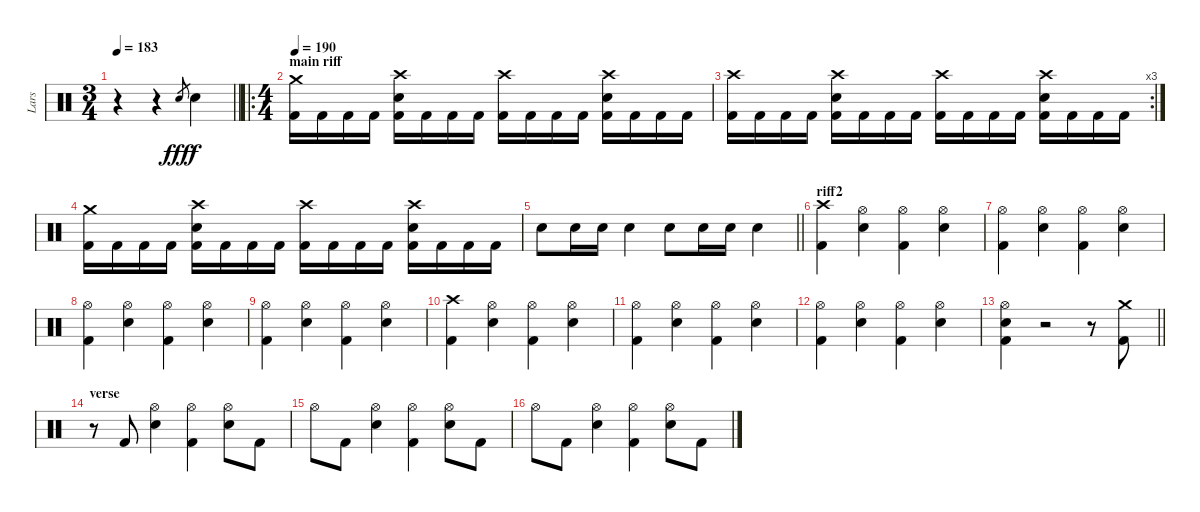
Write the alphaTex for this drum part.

\track ("Lars" "Lars") {instrument percussion}
\staff {score}
\articulation defaults
\ts (3 4)
\tempo 183
\clef neutral
\barLineRight lightlight
\ks c
r.4{dy f} r.4 "Snare (hit) 2".8{gr dy fff} "Snare (hit) 2".4{dy f} |
\ro
\ts (4 4)
\section ("" "main riff")
\tempo 190
("Crash medium (hit)" "Kick (hit) 2").16 "Kick (hit) 2".16 "Kick (hit) 2".16 "Kick (hit) 2".16 ("Crash high (hit)" "Snare (hit) 2" "Kick (hit) 2").16 "Kick (hit) 2".16 "Kick (hit) 2".16 "Kick (hit) 2".16 ("Crash high (hit)" "Kick (hit) 2").16 "Kick (hit) 2".16 "Kick (hit) 2".16 "Kick (hit) 2".16 ("Crash high (hit)" "Snare (hit) 2" "Kick (hit) 2").16 "Kick (hit) 2".16 "Kick (hit) 2".16 "Kick (hit) 2".16 |
\rc 3
("Crash high (hit)" "Kick (hit) 2").16 "Kick (hit) 2".16 "Kick (hit) 2".16 "Kick (hit) 2".16 ("Crash high (hit)" "Snare (hit) 2" "Kick (hit) 2").16 "Kick (hit) 2".16 "Kick (hit) 2".16 "Kick (hit) 2".16 ("Crash high (hit)" "Kick (hit) 2").16 "Kick (hit) 2".16 "Kick (hit) 2".16 "Kick (hit) 2".16 ("Crash high (hit)" "Snare (hit) 2" "Kick (hit) 2").16 "Kick (hit) 2".16 "Kick (hit) 2".16 "Kick (hit) 2".16 |
("Crash medium (hit)" "Kick (hit) 2").16 "Kick (hit) 2".16 "Kick (hit) 2".16 "Kick (hit) 2".16 ("Crash high (hit)" "Snare (hit) 2" "Kick (hit) 2").16 "Kick (hit) 2".16 "Kick (hit) 2".16 "Kick (hit) 2".16 ("Crash high (hit)" "Kick (hit) 2").16 "Kick (hit) 2".16 "Kick (hit) 2".16 "Kick (hit) 2".16 ("Crash high (hit)" "Snare (hit) 2" "Kick (hit) 2").16 "Kick (hit) 2".16 "Kick (hit) 2".16 "Kick (hit) 2".16 |
\barLineRight lightlight "Snare (hit) 2".8 "Snare (hit) 2".16 "Snare (hit) 2".16 "Snare (hit) 2".4 "Snare (hit) 2".8 "Snare (hit) 2".16 "Snare (hit) 2".16 "Snare (hit) 2".4
|
\section ("" "riff2")
("Crash high (hit)" "Kick (hit) 2").4 ("Hi-Hat (open)" "Snare (hit) 2").4 ("Hi-Hat (open)" "Kick (hit) 2").4 ("Hi-Hat (open)" "Snare (hit) 2").4 |
("Hi-Hat (open)" "Kick (hit) 2").4 ("Hi-Hat (open)" "Snare (hit) 2").4 ("Hi-Hat (open)" "Kick (hit) 2").4 ("Hi-Hat (open)" "Snare (hit) 2").4 |
("Hi-Hat (open)" "Kick (hit) 2").4 ("Hi-Hat (open)" "Snare (hit) 2").4 ("Hi-Hat (open)" "Kick (hit) 2").4 ("Hi-Hat (open)" "Snare (hit) 2").4 |
("Hi-Hat (open)" "Kick (hit) 2").4 ("Hi-Hat (open)" "Snare (hit) 2").4 ("Hi-Hat (open)" "Kick (hit) 2").4 ("Hi-Hat (open)" "Snare (hit) 2").4 |
("Crash high (hit)" "Kick (hit) 2").4 ("Hi-Hat (open)" "Snare (hit) 2").4 ("Hi-Hat (open)" "Kick (hit) 2").4 ("Hi-Hat (open)" "Snare (hit) 2").4 |
("Hi-Hat (open)" "Kick (hit) 2").4 ("Hi-Hat (open)" "Snare (hit) 2").4 ("Hi-Hat (open)" "Kick (hit) 2").4 ("Hi-Hat (open)" "Snare (hit) 2").4 |
("Hi-Hat (open)" "Kick (hit) 2").4 ("Hi-Hat (open)" "Snare (hit) 2").4 ("Hi-Hat (open)" "Kick (hit) 2").4 ("Hi-Hat (open)" "Snare (hit) 2").4 |
\barLineRight lightlight
("Hi-Hat (open)" "Snare (hit) 2" "Kick (hit) 2").4 r.2 r.8 ("Crash medium (hit)" "Kick (hit) 2").8 |
\section ("" "verse")
r.8 "Kick (hit) 2".8 ("Hi-Hat (open)" "Snare (hit) 2").4 ("Hi-Hat (open)" "Kick (hit) 2").4 ("Hi-Hat (open)" "Snare (hit) 2").8 "Kick (hit) 2".8 |
"Hi-Hat (open)".8 "Kick (hit) 2".8 ("Hi-Hat (open)" "Snare (hit) 2").4 ("Hi-Hat (open)" "Kick (hit) 2").4 ("Hi-Hat (open)" "Snare (hit) 2").8 "Kick (hit) 2".8 |
"Hi-Hat (open)".8 "Kick (hit) 2".8 ("Hi-Hat (open)" "Snare (hit) 2").4 ("Hi-Hat (open)" "Kick (hit) 2").4 ("Hi-Hat (open)" "Snare (hit) 2").8 "Kick (hit) 2".8
